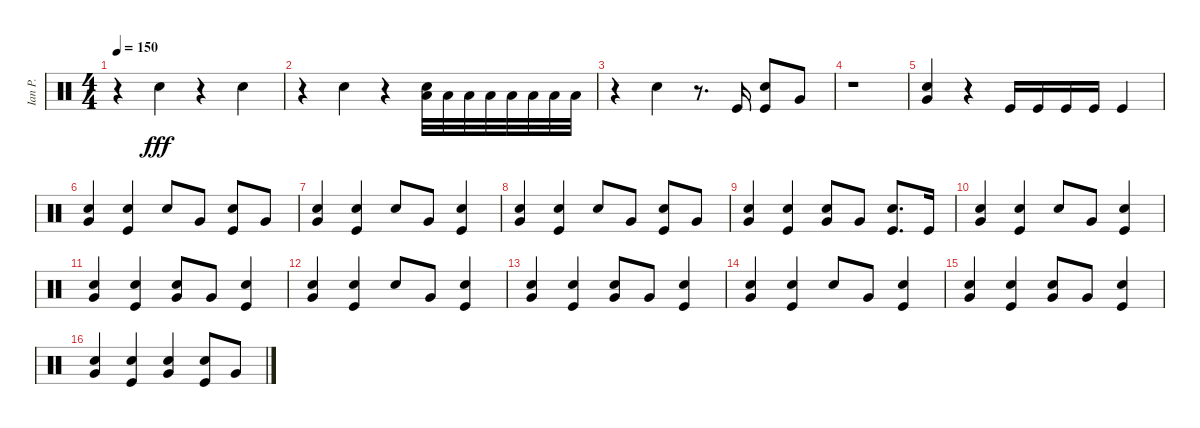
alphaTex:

\track ("Ian P." "Ian P.") {instrument percussion}
\staff {score}
\articulation defaults
\ts (4 4)
\tempo 150
\clef neutral
\ks c
r.4{dy fff} "Electric Snare (hit)".4 r.4 "Electric Snare (hit)".4 |
r.4 "Electric Snare (hit)".4 r.4 ("Electric Snare (hit)" "Low Floor Tom (hit)").32 "Low Floor Tom (hit)".32 "Low Floor Tom (hit)".32 "Low Floor Tom (hit)".32 "Low Floor Tom (hit)".32 "Low Floor Tom (hit)".32 "Low Floor Tom (hit)".32 "Low Floor Tom (hit)".32 |
r.4 "Electric Snare (hit)".4 r.8{d} "Kick (hit)".16 ("Kick (hit)" "Electric Snare (hit)").8 "Very Low Tom (hit)".8 |
r.1 |
("Very Low Tom (hit)" "Electric Snare (hit)").4 r.4 "Kick (hit)".16 "Kick (hit)".16 "Kick (hit)".16 "Kick (hit)".16 "Kick (hit)".4 |
("Very Low Tom (hit)" "Electric Snare (hit)").4 ("Kick (hit)" "Electric Snare (hit)").4 "Electric Snare (hit)".8 "Very Low Tom (hit)".8 ("Kick (hit)" "Electric Snare (hit)").8 "Very Low Tom (hit)".8 |
("Electric Snare (hit)" "Very Low Tom (hit)").4 ("Electric Snare (hit)" "Kick (hit)").4 "Electric Snare (hit)".8 "Very Low Tom (hit)".8 ("Electric Snare (hit)" "Kick (hit)").4 |
("Very Low Tom (hit)" "Electric Snare (hit)").4 ("Kick (hit)" "Electric Snare (hit)").4 "Electric Snare (hit)".8 "Very Low Tom (hit)".8 ("Electric Snare (hit)" "Kick (hit)").8 "Very Low Tom (hit)".8 |
("Very Low Tom (hit)" "Electric Snare (hit)").4 ("Kick (hit)" "Electric Snare (hit)").4 ("Very Low Tom (hit)" "Electric Snare (hit)").8 "Very Low Tom (hit)".8 ("Kick (hit)" "Electric Snare (hit)").8{d} "Kick (hit)".16 |
("Very Low Tom (hit)" "Electric Snare (hit)").4 ("Kick (hit)" "Electric Snare (hit)").4 "Electric Snare (hit)".8 "Very Low Tom (hit)".8 ("Electric Snare (hit)" "Kick (hit)").4 |
("Very Low Tom (hit)" "Electric Snare (hit)").4 ("Kick (hit)" "Electric Snare (hit)").4 ("Very Low Tom (hit)" "Electric Snare (hit)").8 "Very Low Tom (hit)".8 ("Kick (hit)" "Electric Snare (hit)").4 |
("Very Low Tom (hit)" "Electric Snare (hit)").4 ("Kick (hit)" "Electric Snare (hit)").4 "Electric Snare (hit)".8 "Very Low Tom (hit)".8 ("Electric Snare (hit)" "Kick (hit)").4 |
("Very Low Tom (hit)" "Electric Snare (hit)").4 ("Kick (hit)" "Electric Snare (hit)").4 ("Very Low Tom (hit)" "Electric Snare (hit)").8 "Very Low Tom (hit)".8 ("Kick (hit)" "Electric Snare (hit)").4 |
("Very Low Tom (hit)" "Electric Snare (hit)").4 ("Kick (hit)" "Electric Snare (hit)").4 "Electric Snare (hit)".8 "Very Low Tom (hit)".8 ("Electric Snare (hit)" "Kick (hit)").4 |
("Very Low Tom (hit)" "Electric Snare (hit)").4 ("Kick (hit)" "Electric Snare (hit)").4 ("Very Low Tom (hit)" "Electric Snare (hit)").8 "Very Low Tom (hit)".8 ("Kick (hit)" "Electric Snare (hit)").4 |
("Very Low Tom (hit)" "Electric Snare (hit)").4 ("Kick (hit)" "Electric Snare (hit)").4 ("Very Low Tom (hit)" "Electric Snare (hit)").4 ("Kick (hit)" "Electric Snare (hit)").8 "Very Low Tom (hit)".8
